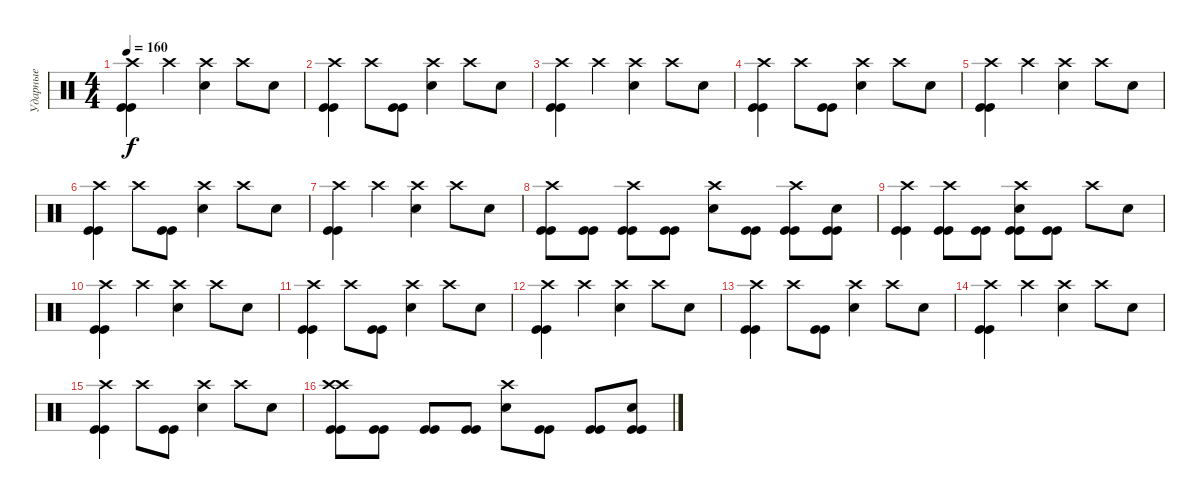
\track ("Ударные" "Ударные") {instrument percussion}
\staff {score}
\articulation defaults
\ts (4 4)
\tempo 160
\clef neutral
\ks c
("Crash high (hit)" "Kick (hit)" "Kick (hit)").4{dy f} "Crash high (hit)".4 ("Crash high (hit)" "Electric Snare (hit)").4 "Crash high (hit)".8 "Electric Snare (hit)".8 |
("Crash high (hit)" "Kick (hit)" "Kick (hit)").4 "Crash high (hit)".8 ("Kick (hit)" "Kick (hit)").8 ("Crash high (hit)" "Electric Snare (hit)").4 "Crash high (hit)".8 "Electric Snare (hit)".8 |
("Crash high (hit)" "Kick (hit)" "Kick (hit)").4 "Crash high (hit)".4 ("Crash high (hit)" "Electric Snare (hit)").4 "Crash high (hit)".8 "Electric Snare (hit)".8 |
("Crash high (hit)" "Kick (hit)" "Kick (hit)").4 "Crash high (hit)".8 ("Kick (hit)" "Kick (hit)").8 ("Crash high (hit)" "Electric Snare (hit)").4 "Crash high (hit)".8 "Electric Snare (hit)".8 |
("Crash high (hit)" "Kick (hit)" "Kick (hit)").4 "Crash high (hit)".4 ("Crash high (hit)" "Electric Snare (hit)").4 "Crash high (hit)".8 "Electric Snare (hit)".8 |
("Crash high (hit)" "Kick (hit)" "Kick (hit)").4 "Crash high (hit)".8 ("Kick (hit)" "Kick (hit)").8 ("Crash high (hit)" "Electric Snare (hit)").4 "Crash high (hit)".8 "Electric Snare (hit)".8 |
("Crash high (hit)" "Kick (hit)" "Kick (hit)").4 "Crash high (hit)".4 ("Crash high (hit)" "Electric Snare (hit)").4 "Crash high (hit)".8 "Electric Snare (hit)".8 |
("Crash high (hit)" "Kick (hit)" "Kick (hit)").8 ("Kick (hit)" "Kick (hit)").8 ("Crash high (hit)" "Kick (hit)" "Kick (hit)").8 ("Kick (hit)" "Kick (hit)").8 ("Crash high (hit)" "Electric Snare (hit)").8 ("Kick (hit)" "Kick (hit)").8 ("Crash high (hit)" "Kick (hit)" "Kick (hit)").8 ("Electric Snare (hit)" "Kick (hit)" "Kick (hit)").8 |
("Crash high (hit)" "Kick (hit)" "Kick (hit)").4 ("Crash high (hit)" "Kick (hit)" "Kick (hit)").8 ("Kick (hit)" "Kick (hit)").8 ("Crash high (hit)" "Electric Snare (hit)" "Kick (hit)" "Kick (hit)").8 ("Kick (hit)" "Kick (hit)").8 "Crash high (hit)".8 "Electric Snare (hit)".8 |
("Crash high (hit)" "Kick (hit)" "Kick (hit)").4 "Crash high (hit)".4 ("Crash high (hit)" "Electric Snare (hit)").4 "Crash high (hit)".8 "Electric Snare (hit)".8 |
("Crash high (hit)" "Kick (hit)" "Kick (hit)").4 "Crash high (hit)".8 ("Kick (hit)" "Kick (hit)").8 ("Crash high (hit)" "Electric Snare (hit)").4 "Crash high (hit)".8 "Electric Snare (hit)".8 |
("Crash high (hit)" "Kick (hit)" "Kick (hit)").4 "Crash high (hit)".4 ("Crash high (hit)" "Electric Snare (hit)").4 "Crash high (hit)".8 "Electric Snare (hit)".8 |
("Crash high (hit)" "Kick (hit)" "Kick (hit)").4 "Crash high (hit)".8 ("Kick (hit)" "Kick (hit)").8 ("Crash high (hit)" "Electric Snare (hit)").4 "Crash high (hit)".8 "Electric Snare (hit)".8 |
("Crash high (hit)" "Kick (hit)" "Kick (hit)").4 "Crash high (hit)".4 ("Crash high (hit)" "Electric Snare (hit)").4 "Crash high (hit)".8 "Electric Snare (hit)".8 |
("Crash high (hit)" "Kick (hit)" "Kick (hit)").4 "Crash high (hit)".8 ("Kick (hit)" "Kick (hit)").8 ("Crash high (hit)" "Electric Snare (hit)").4 "Crash high (hit)".8 "Electric Snare (hit)".8 |
("Crash high (hit)" "Crash high (hit)" "Kick (hit)" "Kick (hit)").8 ("Kick (hit)" "Kick (hit)").8 ("Kick (hit)" "Kick (hit)").8 ("Kick (hit)" "Kick (hit)").8 ("Crash high (hit)" "Electric Snare (hit)").8 ("Kick (hit)" "Kick (hit)").8 ("Kick (hit)" "Kick (hit)").8 ("Electric Snare (hit)" "Kick (hit)" "Kick (hit)").8
